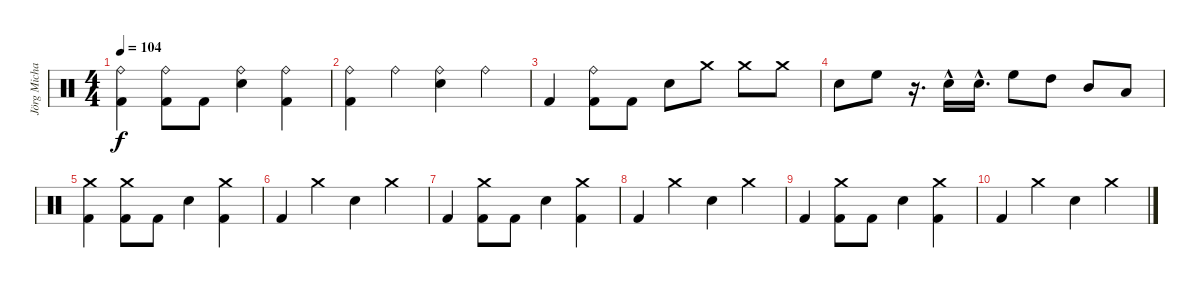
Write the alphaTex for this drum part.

\track ("Jörg Michael" "Jörg Micha") {instrument percussion}
\staff {score}
\articulation defaults
\ts (4 4)
\tempo 104
\clef neutral
\ks c
("Ride (bell)" "Kick (hit) 2").4{dy f} ("Kick (hit) 2" "Ride (bell)").8 "Kick (hit) 2".8 ("Snare (hit) 2" "Ride (bell)").4 ("Kick (hit) 2" "Ride (bell)").4 |
("Ride (bell)" "Kick (hit) 2").4 "Ride (bell)".4 ("Snare (hit) 2" "Ride (bell)").4 "Ride (bell)".4 |
"Kick (hit) 2".4 ("Ride (bell)" "Kick (hit) 2").8 "Kick (hit) 2".8 "Snare (hit) 2".8 "Crash medium (hit)".8 "Crash medium (hit)".8 "Crash medium (hit)".8 |
"Snare (hit) 2".8 "High Floor Tom (hit)".8 r.16{d} "Snare (hit) 2"{hac}.16 "Snare (hit) 2"{hac}.16{d} "High Floor Tom (hit)".8 "High Tom (hit)".8 "Mid Tom (hit)".8 "Low Tom (hit)".8 |
("Kick (hit) 2" "Crash medium (hit)").4 ("Kick (hit) 2" "Crash medium (hit)").8 "Kick (hit) 2".8 "Snare (hit) 2".4 ("Kick (hit) 2" "Crash medium (hit)").4 |
"Kick (hit) 2".4 "Crash medium (hit)".4 "Snare (hit) 2".4 "Crash medium (hit)".4 |
"Kick (hit) 2".4 ("Kick (hit) 2" "Crash medium (hit)").8 "Kick (hit) 2".8 "Snare (hit) 2".4 ("Kick (hit) 2" "Crash medium (hit)").4 |
"Kick (hit) 2".4 "Crash medium (hit)".4 "Snare (hit) 2".4 "Crash medium (hit)".4 |
"Kick (hit) 2".4 ("Kick (hit) 2" "Crash medium (hit)").8 "Kick (hit) 2".8 "Snare (hit) 2".4 ("Kick (hit) 2" "Crash medium (hit)").4 |
"Kick (hit) 2".4 "Crash medium (hit)".4 "Snare (hit) 2".4 "Crash medium (hit)".4
